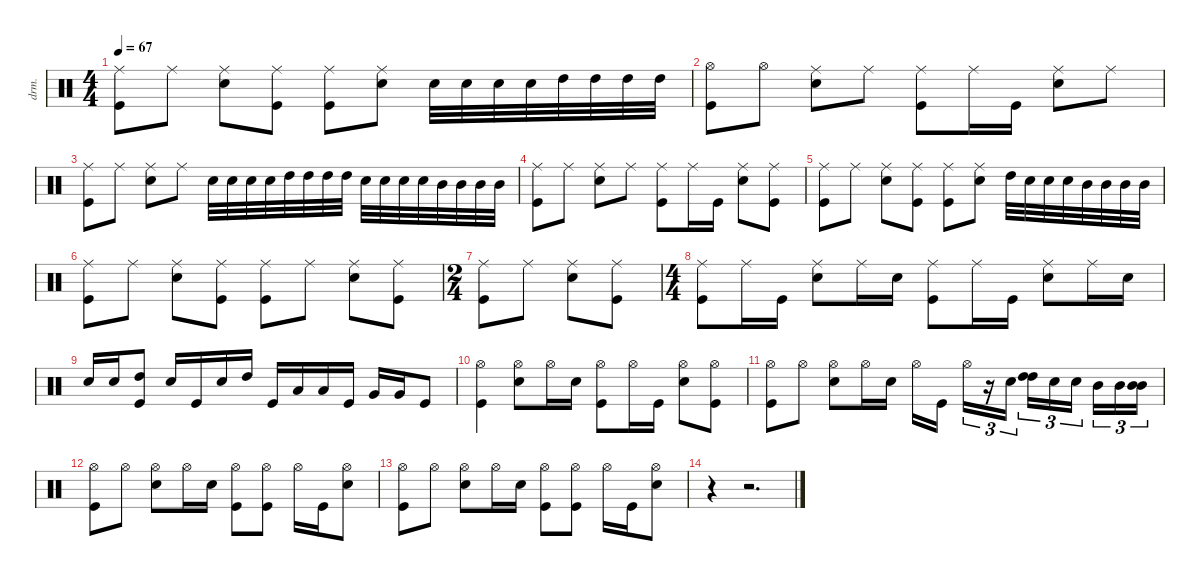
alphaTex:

\defaultSystemsLayout 4
\hideDynamics
\bracketExtendMode nobrackets
\otherSystemsTrackNameOrientation horizontal
\track ("Mitch Mitchell" "drm.") {instrument percussion}
\staff {score}
\articulation defaults
\ts (4 4)
\tempo 67
\clef neutral
\ks c
("Ride (middle)" "Kick (hit)").8{dy f} "Ride (middle)".8 ("Ride (middle)" "Snare (hit) 2").8 ("Ride (middle)" "Kick (hit)").8 ("Ride (middle)" "Kick (hit)").8 ("Ride (middle)" "Snare (hit) 2").8 "Snare (hit) 2".32 "Snare (hit) 2".32 "Snare (hit) 2".32 "Snare (hit) 2".32 "High Tom (hit)".32{dy fff} "High Tom (hit)".32 "High Tom (hit)".32 "High Tom (hit)".32 |
("Hi-Hat (open)" "Kick (hit)").8{dy mp} "Hi-Hat (open)".8 ("Ride (middle)" "Snare (hit) 2").8{dy f} "Ride (middle)".8 ("Ride (middle)" "Kick (hit)").8 "Ride (middle)".16 "Kick (hit)".16 ("Ride (middle)" "Snare (hit) 2").8 "Ride (middle)".8 |
("Ride (middle)" "Kick (hit)").8 "Ride (middle)".8 ("Ride (middle)" "Snare (hit) 2").8 "Ride (middle)".8 "Snare (hit) 2".32 "Snare (hit) 2".32 "Snare (hit) 2".32 "Snare (hit) 2".32 "High Tom (hit)".32{dy fff} "High Tom (hit)".32 "High Tom (hit)".32 "High Tom (hit)".32 "Snare (hit) 2".32{dy f} "Snare (hit) 2".32 "Snare (hit) 2".32 "Snare (hit) 2".32 "Mid Tom (hit)".32{dy fff} "Mid Tom (hit)".32 "Mid Tom (hit)".32 "Mid Tom (hit)".32 |
("Ride (middle)" "Kick (hit)").8{dy f} "Ride (middle)".8 ("Ride (middle)" "Snare (hit) 2").8 "Ride (middle)".8 ("Ride (middle)" "Kick (hit)").8 "Ride (middle)".16 "Kick (hit)".16 ("Ride (middle)" "Snare (hit) 2").8 ("Ride (middle)" "Kick (hit)").8 |
("Ride (middle)" "Kick (hit)").8 "Ride (middle)".8 ("Ride (middle)" "Snare (hit) 2").8 ("Ride (middle)" "Kick (hit)").8 ("Ride (middle)" "Kick (hit)").8 ("Ride (middle)" "Snare (hit) 2").8 "High Tom (hit)".32{dy fff} "Snare (hit) 2".32{dy f} "Snare (hit) 2".32 "Snare (hit) 2".32 "Mid Tom (hit)".32{dy fff} "Mid Tom (hit)".32 "Mid Tom (hit)".32 "Mid Tom (hit)".32 |
("Ride (middle)" "Kick (hit)").8{dy f} "Ride (middle)".8 ("Ride (middle)" "Snare (hit) 2").8 ("Ride (middle)" "Kick (hit)").8 ("Ride (middle)" "Kick (hit)").8 "Ride (middle)".8 ("Ride (middle)" "Snare (hit) 2").8 ("Ride (middle)" "Kick (hit)").8 |
\ts (2 4)
("Ride (middle)" "Kick (hit)").8 "Ride (middle)".8 ("Ride (middle)" "Snare (hit) 2").8 ("Ride (middle)" "Kick (hit)").8 |
\ts (4 4)
("Ride (middle)" "Kick (hit)").8 "Ride (middle)".16 "Kick (hit)".16 ("Ride (middle)" "Snare (hit) 2").8 "Ride (middle)".16 "Snare (hit) 2".16{dy mp} ("Ride (middle)" "Kick (hit)").8{dy f} "Ride (middle)".16 "Kick (hit)".16 ("Ride (middle)" "Snare (hit) 2").8 "Ride (middle)".16 "Snare (hit) 2".16{dy mp} |
"Snare (hit) 2".16{dy f} "Snare (hit) 2".16 ("High Tom (hit)" "Kick (hit)").8{dy fff} "Snare (hit) 2".16{dy f} "Kick (hit)".16{dy fff} "Snare (hit) 2".16{dy f} "High Tom (hit)".16{dy fff} "Kick (hit)".16 "Low Tom (hit)".16 "Low Tom (hit)".16 "Kick (hit)".16 "Very Low Tom (hit)".16 "Very Low Tom (hit)".16 "Kick (hit)".8 |
("Hi-Hat (open)" "Kick (hit)").4{dy mp} ("Hi-Hat (open)" "Snare (hit) 2").8 "Hi-Hat (open)".16 "Snare (hit) 2".16 ("Hi-Hat (open)" "Kick (hit)").8 "Hi-Hat (open)".16 "Kick (hit)".16{dy f} ("Hi-Hat (open)" "Snare (hit) 2").8{dy mp} ("Hi-Hat (open)" "Kick (hit)").8 |
("Hi-Hat (open)" "Kick (hit)").8 "Hi-Hat (open)".8 ("Hi-Hat (open)" "Snare (hit) 2").8 "Hi-Hat (open)".16 "Snare (hit) 2".16 "Hi-Hat (open)".16 "Kick (hit)".16{dy f} "Hi-Hat (open)".16{tu (3 2) dy mp} r.16{tu (3 2)} "Snare (hit) 2".16{tu (3 2) dy f} ("High Tom (hit)" "High Tom (hit)").16{tu (3 2)} "Snare (hit) 2".16{tu (3 2) dy mp} "Snare (hit) 2".16{tu (3 2)} "Mid Tom (hit)".16{tu (3 2) dy f} "Mid Tom (hit)".16{tu (3 2)} ("Mid Tom (hit)" "Mid Tom (hit)").16{tu (3 2)} |
("Hi-Hat (open)" "Kick (hit)").8{dy mp} "Hi-Hat (open)".8 ("Hi-Hat (open)" "Snare (hit) 2").8 "Hi-Hat (open)".16 "Snare (hit) 2".16 ("Hi-Hat (open)" "Kick (hit)").8 ("Hi-Hat (open)" "Kick (hit)").8 "Hi-Hat (open)".16 "Kick (hit)".16{dy f} ("Hi-Hat (open)" "Snare (hit) 2").8{dy mp} |
("Hi-Hat (open)" "Kick (hit)").8 "Hi-Hat (open)".8 ("Hi-Hat (open)" "Snare (hit) 2").8 "Hi-Hat (open)".16 "Snare (hit) 2".16 ("Hi-Hat (open)" "Kick (hit)").8 ("Hi-Hat (open)" "Kick (hit)").8 "Hi-Hat (open)".16 "Kick (hit)".16{dy f} ("Hi-Hat (open)" "Snare (hit) 2").8{dy mp} |
r.4 r.2{d}
